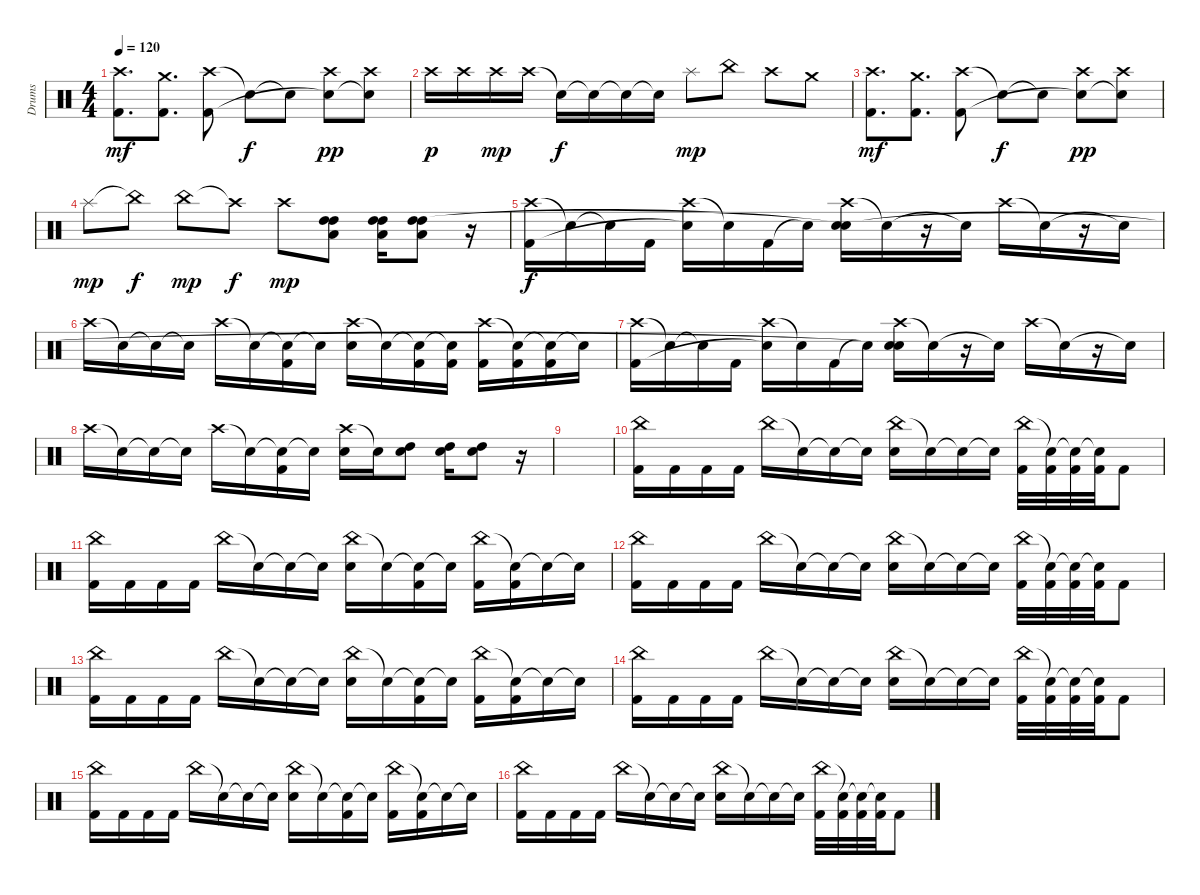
\track ("Drums" "Drums") {instrument percussion}
\staff {score}
\articulation defaults
\ts (4 4)
\tempo 120
\clef neutral
\ks c
("Crash high (hit)" "Kick (hit) 2").8{d dy mf} ("Crash medium (hit)" "Kick (hit) 2").8{d} ("Crash high (hit)" "Kick (hit) 2").8 "Snare (hit)"{t}.8{dy f} "Snare (hit)"{t}.8 ("Crash high (hit)" "Snare (hit)"{t}).8{dy pp} ("Crash high (hit)" "Snare (hit)"{t}).8 |
"Crash high (hit)".16{dy p} "Crash high (hit)".16 "Crash high (hit)".16{dy mp} "Crash high (hit)".16 "Snare (hit)"{t}.16{dy f} "Snare (hit)"{t}.16 "Snare (hit)"{t}.16 "Snare (hit)"{t}.16 "Splash (hit)".8{dy mp} "China (hit)".8 "Crash high (hit)".8 "Crash medium (hit)".8 |
("Crash high (hit)" "Kick (hit) 2").8{d dy mf} ("Crash medium (hit)" "Kick (hit) 2").8{d} ("Crash high (hit)" "Kick (hit) 2").8 "Snare (hit)"{t}.8{dy f} "Snare (hit)"{t}.8 ("Crash high (hit)" "Snare (hit)"{t}).8{dy pp} ("Crash high (hit)" "Snare (hit)"{t}).8 |
"Splash (hit)".8{dy mp} "China (hit)"{t}.8{dy f} "China (hit)".8{dy mp} "Crash high (hit)"{t}.8{dy f} "Crash high (hit)".8{dy mp} ("Low Tom (hit)" "High Tom (hit)" "High Tom (hit)").8 ("Low Tom (hit)" "High Tom (hit)" "High Tom (hit)").16 ("Low Tom (hit)" "High Tom (hit)" "High Tom (hit)").8 r.16 |
("Crash high (hit)" "Kick (hit) 2").16{dy f} "Snare (hit)"{t}.16 "Snare (hit)"{t}.16 "Kick (hit) 2".16 ("Crash high (hit)" "Snare (hit)"{t}).16 "Snare (hit)"{t}.16 "Kick (hit) 2".16 "Snare (hit)"{t}.16 ("Crash high (hit)" "Electric Snare (hit)" "Snare (hit)"{t}).16 "Snare (hit)"{t}.16 r.16 "Snare (hit)"{t}.16 "Crash high (hit)".16 "Snare (hit)"{t}.16 r.16 "Snare (hit)"{t}.16 |
"Crash high (hit)".16 "Snare (hit)"{t}.16 "Snare (hit)"{t}.16 "Snare (hit)"{t}.16 "Crash high (hit)".16 "Snare (hit)"{t}.16 ("Snare (hit)"{t} "Kick (hit) 2").16 "Snare (hit)"{t}.16 ("Crash high (hit)" "Electric Snare (hit)").16 "Snare (hit)"{t}.16 ("Snare (hit)"{t} "Kick (hit) 2").16 ("Snare (hit)"{t} "Kick (hit) 2").16 ("Crash high (hit)" "Kick (hit) 2").16 ("Snare (hit)"{t} "Kick (hit) 2").16 ("Snare (hit)"{t} "Kick (hit) 2").16 "Snare (hit)"{t}.16 |
("Crash high (hit)" "Kick (hit) 2").16 "Snare (hit)"{t}.16 "Snare (hit)"{t}.16 "Kick (hit) 2".16 ("Crash high (hit)" "Snare (hit)"{t}).16 "Snare (hit)"{t}.16 "Kick (hit) 2".16 "Snare (hit)"{t}.16 ("Crash high (hit)" "Electric Snare (hit)" "Snare (hit)"{t}).16 "Snare (hit)"{t}.16 r.16 "Snare (hit)"{t}.16 "Crash high (hit)".16 "Snare (hit)"{t}.16 r.16 "Snare (hit)"{t}.16 |
"Crash high (hit)".16 "Snare (hit)"{t}.16 "Snare (hit)"{t}.16 "Snare (hit)"{t}.16 "Crash high (hit)".16 "Snare (hit)"{t}.16 ("Snare (hit)"{t} "Kick (hit) 2").16 "Snare (hit)"{t}.16 ("Crash high (hit)" "Electric Snare (hit)").16 "Snare (hit)"{t}.16 ("High Tom (hit)" "Electric Snare (hit)").8 ("High Tom (hit)" "Electric Snare (hit)").16 ("High Tom (hit)" "Electric Snare (hit)").8 r.16 |
|
("China (hit)" "Kick (hit) 2").16 "Kick (hit) 2".16 "Kick (hit) 2".16 "Kick (hit) 2".16 "China (hit)".16 "Snare (hit)"{t}.16 "Snare (hit)"{t}.16 "Snare (hit)"{t}.16 ("China (hit)" "Electric Snare (hit)").16 "Snare (hit)"{t}.16 "Snare (hit)"{t}.16 "Snare (hit)"{t}.16 ("China (hit)" "Kick (hit) 2").32 ("Snare (hit)"{t} "Kick (hit) 2").32 ("Snare (hit)"{t} "Kick (hit) 2").32 ("Snare (hit)"{t} "Kick (hit) 2").32 "Kick (hit) 2".8 |
("China (hit)" "Kick (hit) 2").16 "Kick (hit) 2".16 "Kick (hit) 2".16 "Kick (hit) 2".16 "China (hit)".16 "Snare (hit)"{t}.16 "Snare (hit)"{t}.16 "Snare (hit)"{t}.16 ("China (hit)" "Electric Snare (hit)").16 "Snare (hit)"{t}.16 ("Snare (hit)"{t} "Kick (hit) 2").16 "Snare (hit)"{t}.16 ("China (hit)" "Kick (hit) 2").16 ("Snare (hit)"{t} "Kick (hit) 2").16 "Snare (hit)"{t}.16 "Snare (hit)"{t}.16 |
("China (hit)" "Kick (hit) 2").16 "Kick (hit) 2".16 "Kick (hit) 2".16 "Kick (hit) 2".16 "China (hit)".16 "Snare (hit)"{t}.16 "Snare (hit)"{t}.16 "Snare (hit)"{t}.16 ("China (hit)" "Electric Snare (hit)").16 "Snare (hit)"{t}.16 "Snare (hit)"{t}.16 "Snare (hit)"{t}.16 ("China (hit)" "Kick (hit) 2").32 ("Snare (hit)"{t} "Kick (hit) 2").32 ("Snare (hit)"{t} "Kick (hit) 2").32 ("Snare (hit)"{t} "Kick (hit) 2").32 "Kick (hit) 2".8 |
("China (hit)" "Kick (hit) 2").16 "Kick (hit) 2".16 "Kick (hit) 2".16 "Kick (hit) 2".16 "China (hit)".16 "Snare (hit)"{t}.16 "Snare (hit)"{t}.16 "Snare (hit)"{t}.16 ("China (hit)" "Electric Snare (hit)").16 "Snare (hit)"{t}.16 ("Snare (hit)"{t} "Kick (hit) 2").16 "Snare (hit)"{t}.16 ("China (hit)" "Kick (hit) 2").16 ("Snare (hit)"{t} "Kick (hit) 2").16 "Snare (hit)"{t}.16 "Snare (hit)"{t}.16 |
("China (hit)" "Kick (hit) 2").16 "Kick (hit) 2".16 "Kick (hit) 2".16 "Kick (hit) 2".16 "China (hit)".16 "Snare (hit)"{t}.16 "Snare (hit)"{t}.16 "Snare (hit)"{t}.16 ("China (hit)" "Electric Snare (hit)").16 "Snare (hit)"{t}.16 "Snare (hit)"{t}.16 "Snare (hit)"{t}.16 ("China (hit)" "Kick (hit) 2").32 ("Snare (hit)"{t} "Kick (hit) 2").32 ("Snare (hit)"{t} "Kick (hit) 2").32 ("Snare (hit)"{t} "Kick (hit) 2").32 "Kick (hit) 2".8 |
("China (hit)" "Kick (hit) 2").16 "Kick (hit) 2".16 "Kick (hit) 2".16 "Kick (hit) 2".16 "China (hit)".16 "Snare (hit)"{t}.16 "Snare (hit)"{t}.16 "Snare (hit)"{t}.16 ("China (hit)" "Electric Snare (hit)").16 "Snare (hit)"{t}.16 ("Snare (hit)"{t} "Kick (hit) 2").16 "Snare (hit)"{t}.16 ("China (hit)" "Kick (hit) 2").16 ("Snare (hit)"{t} "Kick (hit) 2").16 "Snare (hit)"{t}.16 "Snare (hit)"{t}.16 |
("China (hit)" "Kick (hit) 2").16 "Kick (hit) 2".16 "Kick (hit) 2".16 "Kick (hit) 2".16 "China (hit)".16 "Snare (hit)"{t}.16 "Snare (hit)"{t}.16 "Snare (hit)"{t}.16 ("China (hit)" "Electric Snare (hit)").16 "Snare (hit)"{t}.16 "Snare (hit)"{t}.16 "Snare (hit)"{t}.16 ("China (hit)" "Kick (hit) 2").32 ("Snare (hit)"{t} "Kick (hit) 2").32 ("Snare (hit)"{t} "Kick (hit) 2").32 ("Snare (hit)"{t} "Kick (hit) 2").32 "Kick (hit) 2".8
